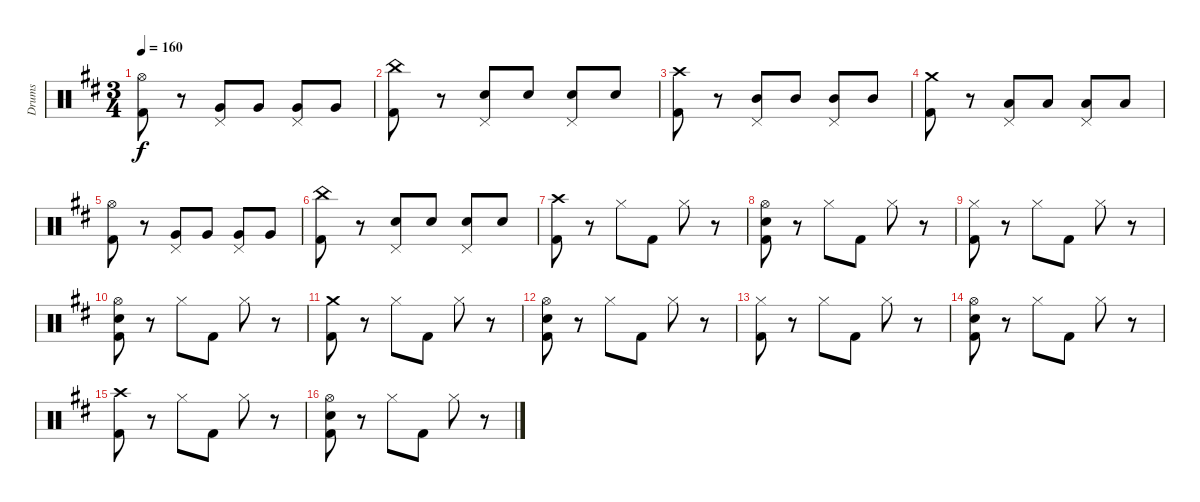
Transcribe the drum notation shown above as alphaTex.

\track ("Drums" "Drums") {instrument percussion}
\staff {score}
\articulation defaults
\ts (3 4)
\tempo 160
\clef neutral
\ks bminor
("Hi-Hat (open)" "Kick (hit) 2").8{dy f} r.8 ("Pedal Hi-Hat (hit)" "Very Low Tom (hit)").8 "Very Low Tom (hit)".8 ("Pedal Hi-Hat (hit)" "Very Low Tom (hit)").8 "Very Low Tom (hit)".8 |
("China (hit)" "Kick (hit) 2").8 r.8 ("Pedal Hi-Hat (hit)" "Snare (hit) 2").8 "Snare (hit) 2".8 ("Pedal Hi-Hat (hit)" "Snare (hit) 2").8 "Snare (hit) 2".8 |
("Crash high (hit)" "Kick (hit) 2").8 r.8 ("Mid Tom (hit)" "Pedal Hi-Hat (hit)").8 "Mid Tom (hit)".8 ("Mid Tom (hit)" "Pedal Hi-Hat (hit)").8 "Mid Tom (hit)".8 |
("Crash medium (hit)" "Kick (hit) 2").8 r.8 ("Pedal Hi-Hat (hit)" "Low Tom (hit)").8 "Low Tom (hit)".8 ("Pedal Hi-Hat (hit)" "Low Tom (hit)").8 "Low Tom (hit)".8 |
("Hi-Hat (open)" "Kick (hit) 2").8 r.8 ("Pedal Hi-Hat (hit)" "Very Low Tom (hit)").8 "Very Low Tom (hit)".8 ("Pedal Hi-Hat (hit)" "Very Low Tom (hit)").8 "Very Low Tom (hit)".8 |
("China (hit)" "Kick (hit) 2").8 r.8 ("Pedal Hi-Hat (hit)" "Snare (hit) 2").8 "Snare (hit) 2".8 ("Pedal Hi-Hat (hit)" "Snare (hit) 2").8 "Snare (hit) 2".8 |
("Crash high (hit)" "Kick (hit) 2").8 r.8 "Hi-Hat (closed)".8 "Kick (hit) 2".8 "Hi-Hat (closed)".8 r.8 |
("Hi-Hat (open)" "Snare (hit) 2" "Kick (hit) 2").8 r.8 "Hi-Hat (closed)".8 "Kick (hit) 2".8 "Hi-Hat (closed)".8 r.8 |
("Hi-Hat (closed)" "Kick (hit) 2").8 r.8 "Hi-Hat (closed)".8 "Kick (hit) 2".8 "Hi-Hat (closed)".8 r.8 |
("Hi-Hat (open)" "Snare (hit) 2" "Kick (hit) 2").8 r.8 "Hi-Hat (closed)".8 "Kick (hit) 2".8 "Hi-Hat (closed)".8 r.8 |
("Crash medium (hit)" "Kick (hit) 2").8 r.8 "Hi-Hat (closed)".8 "Kick (hit) 2".8 "Hi-Hat (closed)".8 r.8 |
("Hi-Hat (open)" "Snare (hit) 2" "Kick (hit) 2").8 r.8 "Hi-Hat (closed)".8 "Kick (hit) 2".8 "Hi-Hat (closed)".8 r.8 |
("Hi-Hat (closed)" "Kick (hit) 2").8 r.8 "Hi-Hat (closed)".8 "Kick (hit) 2".8 "Hi-Hat (closed)".8 r.8 |
("Hi-Hat (open)" "Snare (hit) 2" "Kick (hit) 2").8 r.8 "Hi-Hat (closed)".8 "Kick (hit) 2".8 "Hi-Hat (closed)".8 r.8 |
("Crash high (hit)" "Kick (hit) 2").8 r.8 "Hi-Hat (closed)".8 "Kick (hit) 2".8 "Hi-Hat (closed)".8 r.8 |
("Hi-Hat (open)" "Snare (hit) 2" "Kick (hit) 2").8 r.8 "Hi-Hat (closed)".8 "Kick (hit) 2".8 "Hi-Hat (closed)".8 r.8
